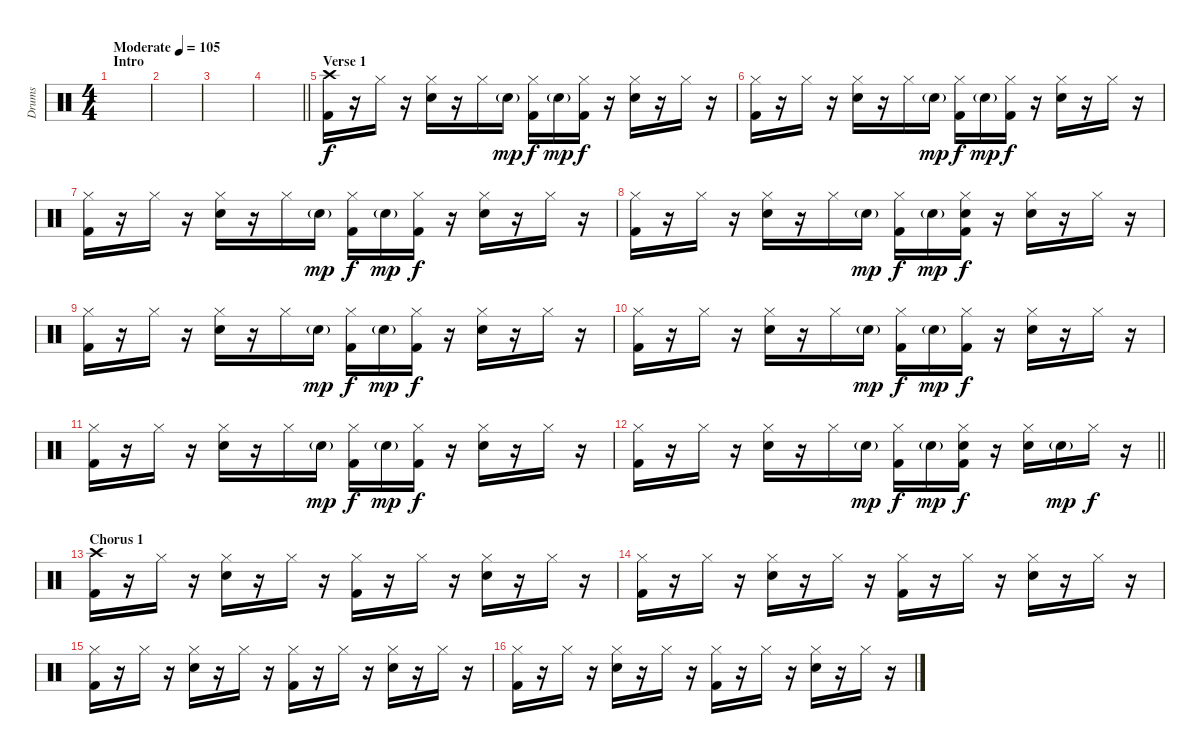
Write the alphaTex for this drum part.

\track ("Drums" "Drums") {instrument percussion}
\staff {score}
\articulation defaults
\ts (4 4)
\section ("" "Intro")
\tempo (105 "Moderate")
\clef neutral
\ks c
|
|
|
\barLineRight lightlight
|
\section ("" "Verse 1")
("Kick (hit) 2" "Crash high (hit)").16 r.16 "Hi-Hat (closed)".16 r.16 ("Snare (hit) 2" "Hi-Hat (closed)").16 r.16 "Hi-Hat (closed)".16 "Snare (hit) 2"{g}.16{dy mp} ("Kick (hit) 2" "Hi-Hat (closed)").16{dy f} "Snare (hit) 2"{g}.16{dy mp} ("Kick (hit) 2" "Hi-Hat (closed)").16{dy f} r.16 ("Snare (hit) 2" "Hi-Hat (closed)").16 r.16 "Hi-Hat (closed)".16 r.16 |
("Kick (hit) 2" "Hi-Hat (closed)").16 r.16 "Hi-Hat (closed)".16 r.16 ("Snare (hit) 2" "Hi-Hat (closed)").16 r.16 "Hi-Hat (closed)".16 "Snare (hit) 2"{g}.16{dy mp} ("Kick (hit) 2" "Hi-Hat (closed)").16{dy f} "Snare (hit) 2"{g}.16{dy mp} ("Kick (hit) 2" "Hi-Hat (closed)").16{dy f} r.16 ("Snare (hit) 2" "Hi-Hat (closed)").16 r.16 "Hi-Hat (closed)".16 r.16 |
("Kick (hit) 2" "Hi-Hat (closed)").16 r.16 "Hi-Hat (closed)".16 r.16 ("Snare (hit) 2" "Hi-Hat (closed)").16 r.16 "Hi-Hat (closed)".16 "Snare (hit) 2"{g}.16{dy mp} ("Kick (hit) 2" "Hi-Hat (closed)").16{dy f} "Snare (hit) 2"{g}.16{dy mp} ("Kick (hit) 2" "Hi-Hat (closed)").16{dy f} r.16 ("Snare (hit) 2" "Hi-Hat (closed)").16 r.16 "Hi-Hat (closed)".16 r.16 |
("Kick (hit) 2" "Hi-Hat (closed)").16 r.16 "Hi-Hat (closed)".16 r.16 ("Snare (hit) 2" "Hi-Hat (closed)").16 r.16 "Hi-Hat (closed)".16 "Snare (hit) 2"{g}.16{dy mp} ("Kick (hit) 2" "Hi-Hat (closed)").16{dy f} "Snare (hit) 2"{g}.16{dy mp} ("Kick (hit) 2" "Snare (hit) 2" "Hi-Hat (closed)").16{dy f} r.16 ("Snare (hit) 2" "Hi-Hat (closed)").16 r.16 "Hi-Hat (closed)".16 r.16 |
("Kick (hit) 2" "Hi-Hat (closed)").16 r.16 "Hi-Hat (closed)".16 r.16 ("Snare (hit) 2" "Hi-Hat (closed)").16 r.16 "Hi-Hat (closed)".16 "Snare (hit) 2"{g}.16{dy mp} ("Kick (hit) 2" "Hi-Hat (closed)").16{dy f} "Snare (hit) 2"{g}.16{dy mp} ("Kick (hit) 2" "Hi-Hat (closed)").16{dy f} r.16 ("Snare (hit) 2" "Hi-Hat (closed)").16 r.16 "Hi-Hat (closed)".16 r.16 |
("Kick (hit) 2" "Hi-Hat (closed)").16 r.16 "Hi-Hat (closed)".16 r.16 ("Snare (hit) 2" "Hi-Hat (closed)").16 r.16 "Hi-Hat (closed)".16 "Snare (hit) 2"{g}.16{dy mp} ("Kick (hit) 2" "Hi-Hat (closed)").16{dy f} "Snare (hit) 2"{g}.16{dy mp} ("Kick (hit) 2" "Hi-Hat (closed)").16{dy f} r.16 ("Snare (hit) 2" "Hi-Hat (closed)").16 r.16 "Hi-Hat (closed)".16 r.16 |
("Kick (hit) 2" "Hi-Hat (closed)").16 r.16 "Hi-Hat (closed)".16 r.16 ("Snare (hit) 2" "Hi-Hat (closed)").16 r.16 "Hi-Hat (closed)".16 "Snare (hit) 2"{g}.16{dy mp} ("Kick (hit) 2" "Hi-Hat (closed)").16{dy f} "Snare (hit) 2"{g}.16{dy mp} ("Kick (hit) 2" "Hi-Hat (closed)").16{dy f} r.16 ("Snare (hit) 2" "Hi-Hat (closed)").16 r.16 "Hi-Hat (closed)".16 r.16 |
\barLineRight lightlight
("Kick (hit) 2" "Hi-Hat (closed)").16 r.16 "Hi-Hat (closed)".16 r.16 ("Snare (hit) 2" "Hi-Hat (closed)").16 r.16 "Hi-Hat (closed)".16 "Snare (hit) 2"{g}.16{dy mp} ("Kick (hit) 2" "Hi-Hat (closed)").16{dy f} "Snare (hit) 2"{g}.16{dy mp} ("Kick (hit) 2" "Snare (hit) 2" "Hi-Hat (closed)").16{dy f} r.16 ("Snare (hit) 2" "Hi-Hat (closed)").16 "Snare (hit) 2"{g}.16{dy mp} "Hi-Hat (closed)".16{dy f} r.16 |
\section ("" "Chorus 1")
("Kick (hit) 2" "Crash high (hit)").16 r.16 "Hi-Hat (closed)".16 r.16 ("Snare (hit) 2" "Hi-Hat (closed)").16 r.16 "Hi-Hat (closed)".16 r.16 ("Kick (hit) 2" "Hi-Hat (closed)").16 r.16 "Hi-Hat (closed)".16 r.16 ("Snare (hit) 2" "Hi-Hat (closed)").16 r.16 "Hi-Hat (closed)".16 r.16 |
("Kick (hit) 2" "Hi-Hat (closed)").16 r.16 "Hi-Hat (closed)".16 r.16 ("Snare (hit) 2" "Hi-Hat (closed)").16 r.16 "Hi-Hat (closed)".16 r.16 ("Kick (hit) 2" "Hi-Hat (closed)").16 r.16 "Hi-Hat (closed)".16 r.16 ("Snare (hit) 2" "Hi-Hat (closed)").16 r.16 "Hi-Hat (closed)".16 r.16 |
("Kick (hit) 2" "Hi-Hat (closed)").16 r.16 "Hi-Hat (closed)".16 r.16 ("Snare (hit) 2" "Hi-Hat (closed)").16 r.16 "Hi-Hat (closed)".16 r.16 ("Kick (hit) 2" "Hi-Hat (closed)").16 r.16 "Hi-Hat (closed)".16 r.16 ("Snare (hit) 2" "Hi-Hat (closed)").16 r.16 "Hi-Hat (closed)".16 r.16 |
("Kick (hit) 2" "Hi-Hat (closed)").16 r.16 "Hi-Hat (closed)".16 r.16 ("Snare (hit) 2" "Hi-Hat (closed)").16 r.16 "Hi-Hat (closed)".16 r.16 ("Kick (hit) 2" "Hi-Hat (closed)").16 r.16 "Hi-Hat (closed)".16 r.16 ("Snare (hit) 2" "Hi-Hat (closed)").16 r.16 "Hi-Hat (closed)".16 r.16
